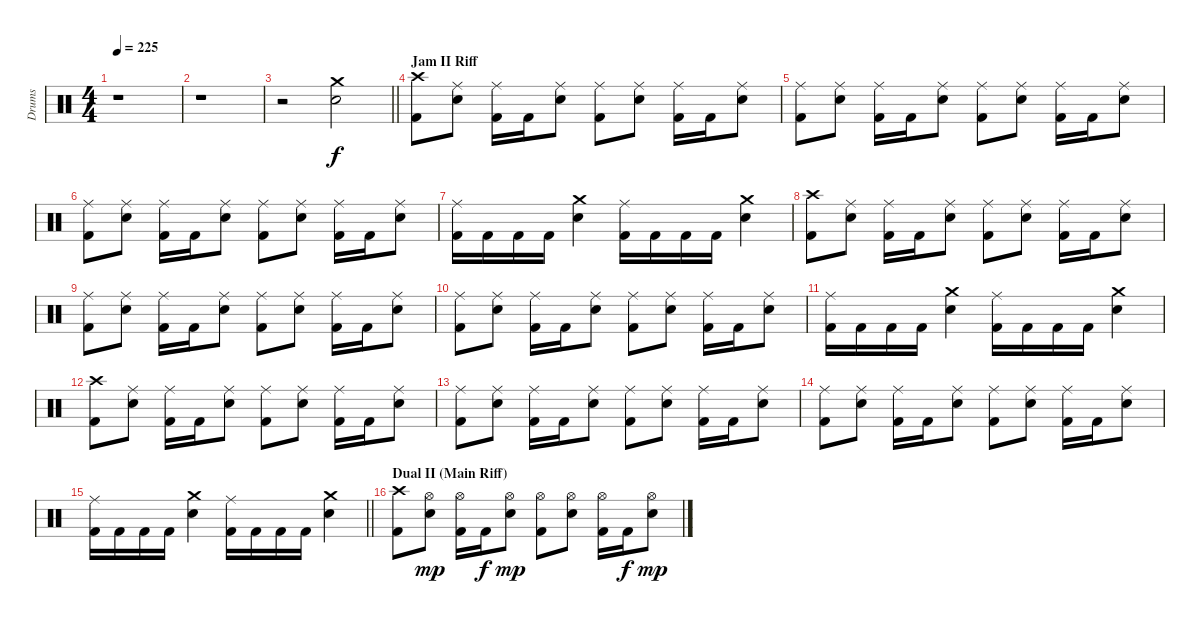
\track ("Drums" "Drums") {instrument percussion}
\staff {score}
\articulation defaults
\ts (4 4)
\tempo 225
\clef neutral
\ks c
r.1{dy f} |
r.1 |
\barLineRight lightlight
r.2 ("Crash medium (hit)" "Snare (hit) 2").2 |
\section ("" "Jam II Riff")
("Crash high (hit)" "Kick (hit) 2").8 ("Ride (middle)" "Snare (hit) 2").8 ("Ride (middle)" "Kick (hit) 2").16 "Kick (hit) 2".16 ("Ride (middle)" "Snare (hit) 2").8 ("Ride (middle)" "Kick (hit) 2").8 ("Ride (middle)" "Snare (hit) 2").8 ("Ride (middle)" "Kick (hit) 2").16 "Kick (hit) 2".16 ("Ride (middle)" "Snare (hit) 2").8 |
("Ride (middle)" "Kick (hit) 2").8 ("Ride (middle)" "Snare (hit) 2").8 ("Ride (middle)" "Kick (hit) 2").16 "Kick (hit) 2".16 ("Ride (middle)" "Snare (hit) 2").8 ("Ride (middle)" "Kick (hit) 2").8 ("Ride (middle)" "Snare (hit) 2").8 ("Ride (middle)" "Kick (hit) 2").16 "Kick (hit) 2".16 ("Ride (middle)" "Snare (hit) 2").8 |
("Ride (middle)" "Kick (hit) 2").8 ("Ride (middle)" "Snare (hit) 2").8 ("Ride (middle)" "Kick (hit) 2").16 "Kick (hit) 2".16 ("Ride (middle)" "Snare (hit) 2").8 ("Ride (middle)" "Kick (hit) 2").8 ("Ride (middle)" "Snare (hit) 2").8 ("Ride (middle)" "Kick (hit) 2").16 "Kick (hit) 2".16 ("Ride (middle)" "Snare (hit) 2").8 |
("Ride (middle)" "Kick (hit) 2").16 "Kick (hit) 2".16 "Kick (hit) 2".16 "Kick (hit) 2".16 ("Crash medium (hit)" "Snare (hit) 2").4 ("Ride (middle)" "Kick (hit) 2").16 "Kick (hit) 2".16 "Kick (hit) 2".16 "Kick (hit) 2".16 ("Crash medium (hit)" "Snare (hit) 2").4 |
("Crash high (hit)" "Kick (hit) 2").8 ("Ride (middle)" "Snare (hit) 2").8 ("Ride (middle)" "Kick (hit) 2").16 "Kick (hit) 2".16 ("Ride (middle)" "Snare (hit) 2").8 ("Ride (middle)" "Kick (hit) 2").8 ("Ride (middle)" "Snare (hit) 2").8 ("Ride (middle)" "Kick (hit) 2").16 "Kick (hit) 2".16 ("Ride (middle)" "Snare (hit) 2").8 |
("Ride (middle)" "Kick (hit) 2").8 ("Ride (middle)" "Snare (hit) 2").8 ("Ride (middle)" "Kick (hit) 2").16 "Kick (hit) 2".16 ("Ride (middle)" "Snare (hit) 2").8 ("Ride (middle)" "Kick (hit) 2").8 ("Ride (middle)" "Snare (hit) 2").8 ("Ride (middle)" "Kick (hit) 2").16 "Kick (hit) 2".16 ("Ride (middle)" "Snare (hit) 2").8 |
("Ride (middle)" "Kick (hit) 2").8 ("Ride (middle)" "Snare (hit) 2").8 ("Ride (middle)" "Kick (hit) 2").16 "Kick (hit) 2".16 ("Ride (middle)" "Snare (hit) 2").8 ("Ride (middle)" "Kick (hit) 2").8 ("Ride (middle)" "Snare (hit) 2").8 ("Ride (middle)" "Kick (hit) 2").16 "Kick (hit) 2".16 ("Ride (middle)" "Snare (hit) 2").8 |
("Ride (middle)" "Kick (hit) 2").16 "Kick (hit) 2".16 "Kick (hit) 2".16 "Kick (hit) 2".16 ("Crash medium (hit)" "Snare (hit) 2").4 ("Ride (middle)" "Kick (hit) 2").16 "Kick (hit) 2".16 "Kick (hit) 2".16 "Kick (hit) 2".16 ("Crash medium (hit)" "Snare (hit) 2").4 |
("Crash high (hit)" "Kick (hit) 2").8 ("Ride (middle)" "Snare (hit) 2").8 ("Ride (middle)" "Kick (hit) 2").16 "Kick (hit) 2".16 ("Ride (middle)" "Snare (hit) 2").8 ("Ride (middle)" "Kick (hit) 2").8 ("Ride (middle)" "Snare (hit) 2").8 ("Ride (middle)" "Kick (hit) 2").16 "Kick (hit) 2".16 ("Ride (middle)" "Snare (hit) 2").8 |
("Ride (middle)" "Kick (hit) 2").8 ("Ride (middle)" "Snare (hit) 2").8 ("Ride (middle)" "Kick (hit) 2").16 "Kick (hit) 2".16 ("Ride (middle)" "Snare (hit) 2").8 ("Ride (middle)" "Kick (hit) 2").8 ("Ride (middle)" "Snare (hit) 2").8 ("Ride (middle)" "Kick (hit) 2").16 "Kick (hit) 2".16 ("Ride (middle)" "Snare (hit) 2").8 |
("Ride (middle)" "Kick (hit) 2").8 ("Ride (middle)" "Snare (hit) 2").8 ("Ride (middle)" "Kick (hit) 2").16 "Kick (hit) 2".16 ("Ride (middle)" "Snare (hit) 2").8 ("Ride (middle)" "Kick (hit) 2").8 ("Ride (middle)" "Snare (hit) 2").8 ("Ride (middle)" "Kick (hit) 2").16 "Kick (hit) 2".16 ("Ride (middle)" "Snare (hit) 2").8 |
\barLineRight lightlight
("Ride (middle)" "Kick (hit) 2").16 "Kick (hit) 2".16 "Kick (hit) 2".16 "Kick (hit) 2".16 ("Crash medium (hit)" "Snare (hit) 2").4 ("Ride (middle)" "Kick (hit) 2").16 "Kick (hit) 2".16 "Kick (hit) 2".16 "Kick (hit) 2".16 ("Crash medium (hit)" "Snare (hit) 2").4 |
\section ("" "Dual II (Main Riff)")
("Crash high (hit)" "Kick (hit) 2").8 ("Hi-Hat (open)" "Snare (hit) 2").8{dy mp} ("Hi-Hat (open)" "Kick (hit) 2").16 "Kick (hit) 2".16{dy f} ("Hi-Hat (open)" "Snare (hit) 2").8{dy mp} ("Hi-Hat (open)" "Kick (hit) 2").8 ("Hi-Hat (open)" "Snare (hit) 2").8 ("Hi-Hat (open)" "Kick (hit) 2").16 "Kick (hit) 2".16{dy f} ("Hi-Hat (open)" "Snare (hit) 2").8{dy mp}
